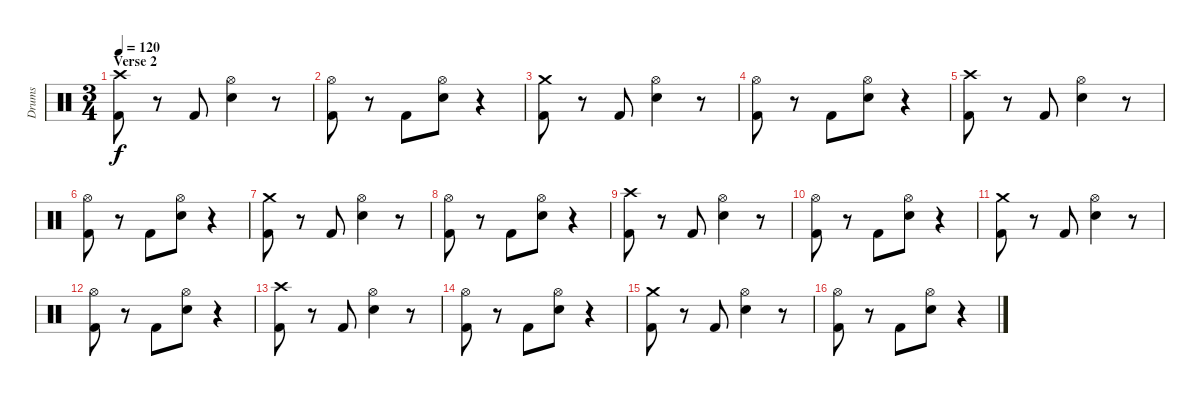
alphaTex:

\track ("Drums" "Drums") {instrument percussion}
\staff {score}
\articulation defaults
\ts (3 4)
\section ("" "Verse 2")
\tempo 120
\clef neutral
\ks c
("Crash high (hit)" "Kick (hit) 2").8{dy f} r.8 "Kick (hit) 2".8 ("Hi-Hat (open)" "Snare (hit) 2").4 r.8 |
("Hi-Hat (open)" "Kick (hit) 2").8 r.8 "Kick (hit) 2".8 ("Hi-Hat (open)" "Snare (hit) 2").8 r.4 |
("Crash medium (hit)" "Kick (hit) 2").8 r.8 "Kick (hit) 2".8 ("Hi-Hat (open)" "Snare (hit) 2").4 r.8 |
("Hi-Hat (open)" "Kick (hit) 2").8 r.8 "Kick (hit) 2".8 ("Hi-Hat (open)" "Snare (hit) 2").8 r.4 |
("Crash high (hit)" "Kick (hit) 2").8 r.8 "Kick (hit) 2".8 ("Hi-Hat (open)" "Snare (hit) 2").4 r.8 |
("Hi-Hat (open)" "Kick (hit) 2").8 r.8 "Kick (hit) 2".8 ("Hi-Hat (open)" "Snare (hit) 2").8 r.4 |
("Crash medium (hit)" "Kick (hit) 2").8 r.8 "Kick (hit) 2".8 ("Hi-Hat (open)" "Snare (hit) 2").4 r.8 |
("Hi-Hat (open)" "Kick (hit) 2").8 r.8 "Kick (hit) 2".8 ("Hi-Hat (open)" "Snare (hit) 2").8 r.4 |
("Crash high (hit)" "Kick (hit) 2").8 r.8 "Kick (hit) 2".8 ("Hi-Hat (open)" "Snare (hit) 2").4 r.8 |
("Hi-Hat (open)" "Kick (hit) 2").8 r.8 "Kick (hit) 2".8 ("Hi-Hat (open)" "Snare (hit) 2").8 r.4 |
("Crash medium (hit)" "Kick (hit) 2").8 r.8 "Kick (hit) 2".8 ("Hi-Hat (open)" "Snare (hit) 2").4 r.8 |
("Hi-Hat (open)" "Kick (hit) 2").8 r.8 "Kick (hit) 2".8 ("Hi-Hat (open)" "Snare (hit) 2").8 r.4 |
("Crash high (hit)" "Kick (hit) 2").8 r.8 "Kick (hit) 2".8 ("Hi-Hat (open)" "Snare (hit) 2").4 r.8 |
("Hi-Hat (open)" "Kick (hit) 2").8 r.8 "Kick (hit) 2".8 ("Hi-Hat (open)" "Snare (hit) 2").8 r.4 |
("Crash medium (hit)" "Kick (hit) 2").8 r.8 "Kick (hit) 2".8 ("Hi-Hat (open)" "Snare (hit) 2").4 r.8 |
("Hi-Hat (open)" "Kick (hit) 2").8 r.8 "Kick (hit) 2".8 ("Hi-Hat (open)" "Snare (hit) 2").8 r.4
